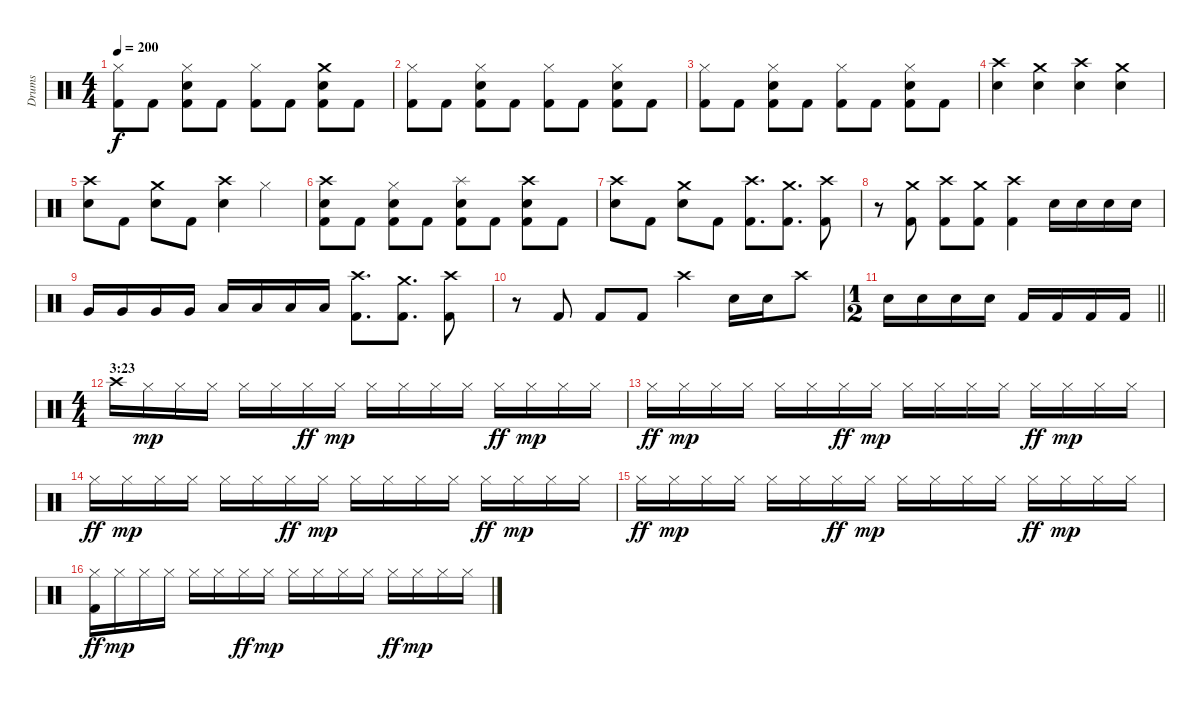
\track ("Drums" "Drums") {instrument percussion}
\staff {score}
\articulation defaults
\ts (4 4)
\tempo 200
\clef neutral
\ks c
("Hi-Hat (closed)" "Kick (hit) 2").8{dy f} "Kick (hit) 2".8 ("Hi-Hat (closed)" "Snare (hit) 2" "Kick (hit) 2").8 "Kick (hit) 2".8 ("Hi-Hat (closed)" "Kick (hit) 2").8 "Kick (hit) 2".8 ("Crash medium (hit)" "Snare (hit) 2" "Kick (hit) 2").8 "Kick (hit) 2".8 |
("Hi-Hat (closed)" "Kick (hit) 2").8 "Kick (hit) 2".8 ("Hi-Hat (closed)" "Snare (hit) 2" "Kick (hit) 2").8 "Kick (hit) 2".8 ("Hi-Hat (closed)" "Kick (hit) 2").8 "Kick (hit) 2".8 ("Hi-Hat (closed)" "Snare (hit) 2" "Kick (hit) 2").8 "Kick (hit) 2".8 |
("Hi-Hat (closed)" "Kick (hit) 2").8 "Kick (hit) 2".8 ("Hi-Hat (closed)" "Snare (hit) 2" "Kick (hit) 2").8 "Kick (hit) 2".8 ("Hi-Hat (closed)" "Kick (hit) 2").8 "Kick (hit) 2".8 ("Hi-Hat (closed)" "Snare (hit) 2" "Kick (hit) 2").8 "Kick (hit) 2".8 |
("Crash high (hit)" "Snare (hit) 2").4 ("Crash medium (hit)" "Snare (hit) 2").4 ("Crash high (hit)" "Snare (hit) 2").4 ("Crash medium (hit)" "Snare (hit) 2").4 |
("Crash high (hit)" "Snare (hit) 2").8 "Kick (hit) 2".8 ("Crash medium (hit)" "Snare (hit) 2").8 "Kick (hit) 2".8 ("Crash high (hit)" "Snare (hit) 2").4 "Hi-Hat (closed)".4 |
("Crash high (hit)" "Snare (hit) 2" "Kick (hit) 2").8 "Kick (hit) 2".8 ("Hi-Hat (closed)" "Snare (hit) 2" "Kick (hit) 2").8 "Kick (hit) 2".8 ("Splash (hit)" "Snare (hit) 2" "Kick (hit) 2").8 "Kick (hit) 2".8 ("Crash high (hit)" "Snare (hit) 2" "Kick (hit) 2").8 "Kick (hit) 2".8 |
("Crash high (hit)" "Snare (hit) 2").8 "Kick (hit) 2".8 ("Crash medium (hit)" "Snare (hit) 2").8 "Kick (hit) 2".8 ("Crash high (hit)" "Kick (hit) 2").8{d} ("Crash medium (hit)" "Kick (hit) 2").8{d} ("Crash high (hit)" "Kick (hit) 2").8 |
r.8 ("Crash medium (hit)" "Kick (hit) 2").8 ("Crash high (hit)" "Kick (hit) 2").8 ("Crash medium (hit)" "Kick (hit) 2").8 ("Crash high (hit)" "Kick (hit) 2").4 "Snare (hit) 2".16 "Snare (hit) 2".16 "Snare (hit) 2".16 "Snare (hit) 2".16 |
"Very Low Tom (hit)".16 "Very Low Tom (hit)".16 "Very Low Tom (hit)".16 "Very Low Tom (hit)".16 "Low Floor Tom (hit)".16 "Low Floor Tom (hit)".16 "Low Floor Tom (hit)".16 "Low Floor Tom (hit)".16 ("Crash high (hit)" "Kick (hit) 2").8{d} ("Crash medium (hit)" "Kick (hit) 2").8{d} ("Crash high (hit)" "Kick (hit) 2").8 |
r.8 "Kick (hit) 2".8 "Kick (hit) 2".8 "Kick (hit) 2".8 "Crash high (hit)".4 "Snare (hit) 2".16 "Snare (hit) 2".16 "Crash high (hit)".8 |
\ts (1 2)
\barLineRight lightlight "Snare (hit) 2".16 "Snare (hit) 2".16 "Snare (hit) 2".16 "Snare (hit) 2".16 "Kick (hit) 2".16 "Kick (hit) 2".16 "Kick (hit) 2".16 "Kick (hit) 2".16
|
\ts (4 4)
\section ("" "3:23")
"Crash high (hit)".16 "Hi-Hat (closed)".16{dy mp} "Hi-Hat (closed)".16 "Hi-Hat (closed)".16 "Hi-Hat (closed)".16 "Hi-Hat (closed)".16 "Hi-Hat (closed)".16{dy ff} "Hi-Hat (closed)".16{dy mp} "Hi-Hat (closed)".16 "Hi-Hat (closed)".16 "Hi-Hat (closed)".16 "Hi-Hat (closed)".16 "Hi-Hat (closed)".16{dy ff} "Hi-Hat (closed)".16{dy mp} "Hi-Hat (closed)".16 "Hi-Hat (closed)".16 |
"Hi-Hat (closed)".16{dy ff} "Hi-Hat (closed)".16{dy mp} "Hi-Hat (closed)".16 "Hi-Hat (closed)".16 "Hi-Hat (closed)".16 "Hi-Hat (closed)".16 "Hi-Hat (closed)".16{dy ff} "Hi-Hat (closed)".16{dy mp} "Hi-Hat (closed)".16 "Hi-Hat (closed)".16 "Hi-Hat (closed)".16 "Hi-Hat (closed)".16 "Hi-Hat (closed)".16{dy ff} "Hi-Hat (closed)".16{dy mp} "Hi-Hat (closed)".16 "Hi-Hat (closed)".16 |
"Hi-Hat (closed)".16{dy ff} "Hi-Hat (closed)".16{dy mp} "Hi-Hat (closed)".16 "Hi-Hat (closed)".16 "Hi-Hat (closed)".16 "Hi-Hat (closed)".16 "Hi-Hat (closed)".16{dy ff} "Hi-Hat (closed)".16{dy mp} "Hi-Hat (closed)".16 "Hi-Hat (closed)".16 "Hi-Hat (closed)".16 "Hi-Hat (closed)".16 "Hi-Hat (closed)".16{dy ff} "Hi-Hat (closed)".16{dy mp} "Hi-Hat (closed)".16 "Hi-Hat (closed)".16 |
"Hi-Hat (closed)".16{dy ff} "Hi-Hat (closed)".16{dy mp} "Hi-Hat (closed)".16 "Hi-Hat (closed)".16 "Hi-Hat (closed)".16 "Hi-Hat (closed)".16 "Hi-Hat (closed)".16{dy ff} "Hi-Hat (closed)".16{dy mp} "Hi-Hat (closed)".16 "Hi-Hat (closed)".16 "Hi-Hat (closed)".16 "Hi-Hat (closed)".16 "Hi-Hat (closed)".16{dy ff} "Hi-Hat (closed)".16{dy mp} "Hi-Hat (closed)".16 "Hi-Hat (closed)".16 |
("Hi-Hat (closed)" "Kick (hit) 2").16{dy ff} "Hi-Hat (closed)".16{dy mp} "Hi-Hat (closed)".16 "Hi-Hat (closed)".16 "Hi-Hat (closed)".16 "Hi-Hat (closed)".16 "Hi-Hat (closed)".16{dy ff} "Hi-Hat (closed)".16{dy mp} "Hi-Hat (closed)".16 "Hi-Hat (closed)".16 "Hi-Hat (closed)".16 "Hi-Hat (closed)".16 "Hi-Hat (closed)".16{dy ff} "Hi-Hat (closed)".16{dy mp} "Hi-Hat (closed)".16 "Hi-Hat (closed)".16
